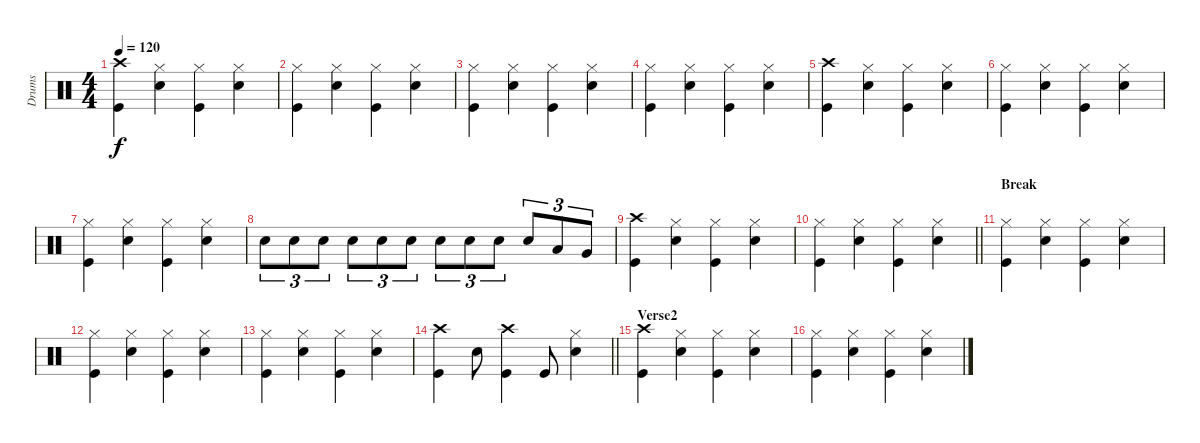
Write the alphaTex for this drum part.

\track ("Drums" "Drums") {instrument percussion}
\staff {score}
\articulation defaults
\ts (4 4)
\tempo 120
\clef neutral
\ks c
("Crash high (hit)" "Kick (hit)").4{dy f} ("Hi-Hat (closed)" "Electric Snare (hit)").4 ("Hi-Hat (closed)" "Kick (hit)").4 ("Hi-Hat (closed)" "Electric Snare (hit)").4 |
("Hi-Hat (closed)" "Kick (hit)").4 ("Hi-Hat (closed)" "Electric Snare (hit)").4 ("Hi-Hat (closed)" "Kick (hit)").4 ("Hi-Hat (closed)" "Electric Snare (hit)").4 |
("Hi-Hat (closed)" "Kick (hit)").4 ("Hi-Hat (closed)" "Electric Snare (hit)").4 ("Hi-Hat (closed)" "Kick (hit)").4 ("Hi-Hat (closed)" "Electric Snare (hit)").4 |
("Hi-Hat (closed)" "Kick (hit)").4 ("Hi-Hat (closed)" "Electric Snare (hit)").4 ("Hi-Hat (closed)" "Kick (hit)").4 ("Hi-Hat (closed)" "Electric Snare (hit)").4 |
("Crash high (hit)" "Kick (hit)").4 ("Hi-Hat (closed)" "Electric Snare (hit)").4 ("Hi-Hat (closed)" "Kick (hit)").4 ("Hi-Hat (closed)" "Electric Snare (hit)").4 |
("Hi-Hat (closed)" "Kick (hit)").4 ("Hi-Hat (closed)" "Electric Snare (hit)").4 ("Hi-Hat (closed)" "Kick (hit)").4 ("Hi-Hat (closed)" "Electric Snare (hit)").4 |
("Hi-Hat (closed)" "Kick (hit)").4 ("Hi-Hat (closed)" "Electric Snare (hit)").4 ("Hi-Hat (closed)" "Kick (hit)").4 ("Hi-Hat (closed)" "Electric Snare (hit)").4 |
"Electric Snare (hit)".8{tu (3 2)} "Electric Snare (hit)".8{tu (3 2)} "Electric Snare (hit)".8{tu (3 2)} "Electric Snare (hit)".8{tu (3 2)} "Electric Snare (hit)".8{tu (3 2)} "Electric Snare (hit)".8{tu (3 2)} "Electric Snare (hit)".8{tu (3 2)} "Electric Snare (hit)".8{tu (3 2)} "Electric Snare (hit)".8{tu (3 2)} "Electric Snare (hit)".8{tu (3 2)} "Low Tom (hit)".8{tu (3 2)} "Very Low Tom (hit)".8{tu (3 2)} |
("Crash high (hit)" "Kick (hit)").4 ("Hi-Hat (closed)" "Electric Snare (hit)").4 ("Hi-Hat (closed)" "Kick (hit)").4 ("Hi-Hat (closed)" "Electric Snare (hit)").4 |
\barLineRight lightlight
("Hi-Hat (closed)" "Kick (hit)").4 ("Hi-Hat (closed)" "Electric Snare (hit)").4 ("Hi-Hat (closed)" "Kick (hit)").4 ("Hi-Hat (closed)" "Electric Snare (hit)").4 |
\section ("" "Break")
("Hi-Hat (closed)" "Kick (hit)").4 ("Hi-Hat (closed)" "Electric Snare (hit)").4 ("Hi-Hat (closed)" "Kick (hit)").4 ("Hi-Hat (closed)" "Electric Snare (hit)").4 |
("Hi-Hat (closed)" "Kick (hit)").4 ("Hi-Hat (closed)" "Electric Snare (hit)").4 ("Hi-Hat (closed)" "Kick (hit)").4 ("Hi-Hat (closed)" "Electric Snare (hit)").4 |
("Hi-Hat (closed)" "Kick (hit)").4 ("Hi-Hat (closed)" "Electric Snare (hit)").4 ("Hi-Hat (closed)" "Kick (hit)").4 ("Hi-Hat (closed)" "Electric Snare (hit)").4 |
\barLineRight lightlight
("Crash high (hit)" "Kick (hit)").4 "Electric Snare (hit)".8 ("Crash high (hit)" "Kick (hit)").4 "Kick (hit)".8 ("Hi-Hat (closed)" "Electric Snare (hit)").4 |
\section ("" "Verse2")
("Crash high (hit)" "Kick (hit)").4 ("Hi-Hat (closed)" "Electric Snare (hit)").4 ("Hi-Hat (closed)" "Kick (hit)").4 ("Hi-Hat (closed)" "Electric Snare (hit)").4 |
("Hi-Hat (closed)" "Kick (hit)").4 ("Hi-Hat (closed)" "Electric Snare (hit)").4 ("Hi-Hat (closed)" "Kick (hit)").4 ("Hi-Hat (closed)" "Electric Snare (hit)").4
